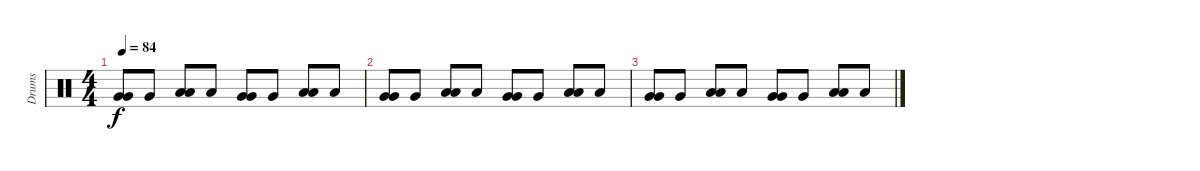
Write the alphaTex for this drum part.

\track ("Drums" "Drums") {instrument percussion}
\staff {score}
\articulation defaults
\ts (4 4)
\tempo 84
\clef neutral
\ks c
("Very Low Tom (hit)" "Very Low Tom (hit)").8{dy f} "Very Low Tom (hit)".8 ("Low Tom (hit)" "Low Tom (hit)").8 "Low Tom (hit)".8 ("Very Low Tom (hit)" "Very Low Tom (hit)").8 "Very Low Tom (hit)".8 ("Low Tom (hit)" "Low Tom (hit)").8 "Low Tom (hit)".8 |
("Very Low Tom (hit)" "Very Low Tom (hit)").8 "Very Low Tom (hit)".8 ("Low Tom (hit)" "Low Tom (hit)").8 "Low Tom (hit)".8 ("Very Low Tom (hit)" "Very Low Tom (hit)").8 "Very Low Tom (hit)".8 ("Low Tom (hit)" "Low Tom (hit)").8 "Low Tom (hit)".8 |
("Very Low Tom (hit)" "Very Low Tom (hit)").8 "Very Low Tom (hit)".8 ("Low Tom (hit)" "Low Tom (hit)").8 "Low Tom (hit)".8 ("Very Low Tom (hit)" "Very Low Tom (hit)").8 "Very Low Tom (hit)".8 ("Low Tom (hit)" "Low Tom (hit)").8 "Low Tom (hit)".8
